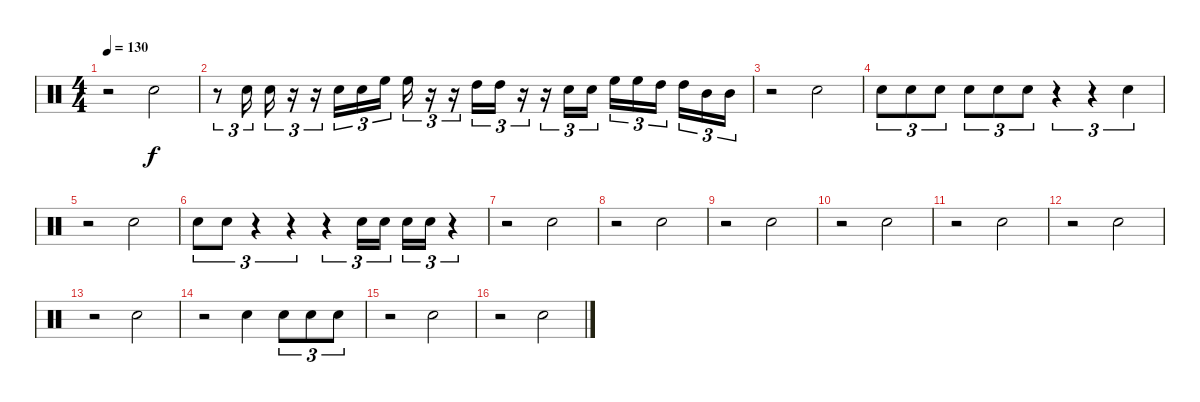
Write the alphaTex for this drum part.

\track "" {instrument percussion}
\staff {score}
\articulation defaults
\ts (4 4)
\tempo 130
\clef neutral
\ks c
r.2{dy f} "Electric Snare (hit)".2 |
r.8{tu (3 2)} "Electric Snare (hit)".16{tu (3 2)} "Electric Snare (hit)".16{tu (3 2)} r.16{tu (3 2)} r.16{tu (3 2)} "Electric Snare (hit)".16{tu (3 2)} "Electric Snare (hit)".16{tu (3 2)} "High Floor Tom (hit)".16{tu (3 2)} "High Floor Tom (hit)".16{tu (3 2)} r.16{tu (3 2)} r.16{tu (3 2)} "High Tom (hit)".16{tu (3 2)} "High Tom (hit)".16{tu (3 2)} r.16{tu (3 2)} r.16{tu (3 2)} "Electric Snare (hit)".16{tu (3 2)} "Electric Snare (hit)".16{tu (3 2)} "High Floor Tom (hit)".16{tu (3 2)} "High Floor Tom (hit)".16{tu (3 2)} "High Tom (hit)".16{tu (3 2)} "High Tom (hit)".16{tu (3 2)} "Mid Tom (hit)".16{tu (3 2)} "Mid Tom (hit)".16{tu (3 2)} |
r.2 "Electric Snare (hit)".2 |
"Electric Snare (hit)".8{tu (3 2)} "Electric Snare (hit)".8{tu (3 2)} "Electric Snare (hit)".8{tu (3 2)} "Electric Snare (hit)".8{tu (3 2)} "Electric Snare (hit)".8{tu (3 2)} "Electric Snare (hit)".8{tu (3 2)} r.4{tu (3 2)} r.4{tu (3 2)} "Electric Snare (hit)".4{tu (3 2)} |
r.2 "Electric Snare (hit)".2 |
"Electric Snare (hit)".8{tu (3 2)} "Electric Snare (hit)".8{tu (3 2)} r.4{tu (3 2)} r.4{tu (3 2)} r.4{tu (3 2)} "Electric Snare (hit)".16{tu (3 2)} "Electric Snare (hit)".16{tu (3 2)} "Electric Snare (hit)".16{tu (3 2)} "Electric Snare (hit)".16{tu (3 2)} r.4{tu (3 2)} |
r.2 "Electric Snare (hit)".2 |
r.2 "Electric Snare (hit)".2 |
r.2 "Electric Snare (hit)".2 |
r.2 "Electric Snare (hit)".2 |
r.2 "Electric Snare (hit)".2 |
r.2 "Electric Snare (hit)".2 |
r.2 "Electric Snare (hit)".2 |
r.2 "Electric Snare (hit)".4 "Electric Snare (hit)".8{tu (3 2)} "Electric Snare (hit)".8{tu (3 2)} "Electric Snare (hit)".8{tu (3 2)} |
r.2 "Electric Snare (hit)".2 |
r.2 "Electric Snare (hit)".2
